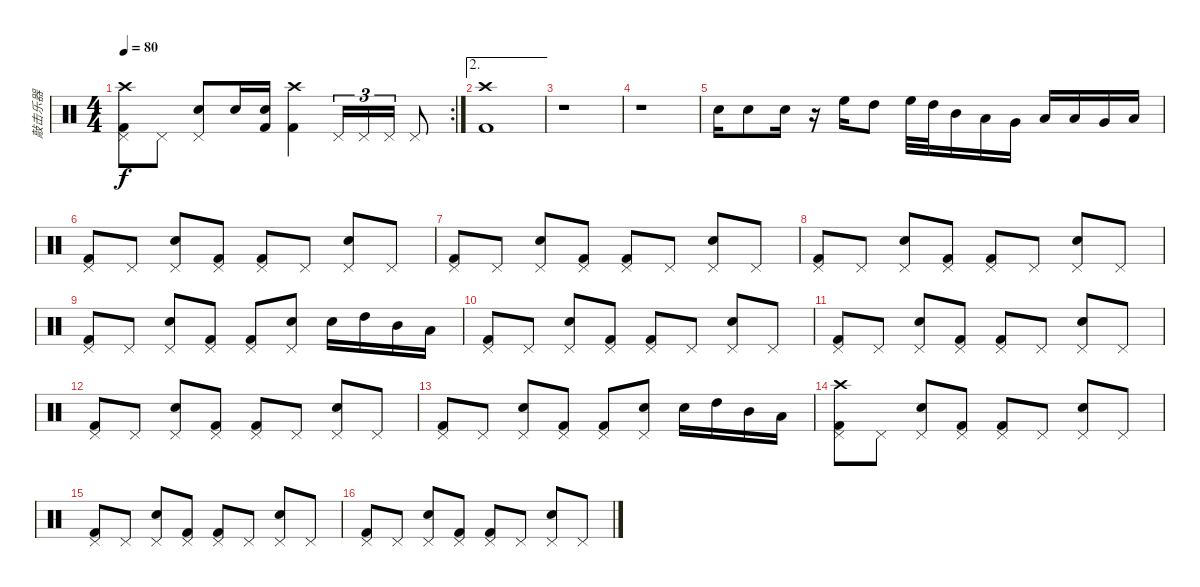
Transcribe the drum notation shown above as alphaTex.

\track ("敲击乐器" "敲击乐器") {instrument percussion}
\staff {score}
\articulation defaults
\rc 2
\ts (4 4)
\tempo 80
\clef neutral
\ks c
("Crash high (hit)" "Pedal Hi-Hat (hit)" "Kick (hit) 2").8{dy f} "Pedal Hi-Hat (hit)".8 ("Pedal Hi-Hat (hit)" "Metronome (bell)").8 "Metronome (bell)".16 ("Metronome (bell)" "Kick (hit) 2").16 ("Crash high (hit)" "Kick (hit) 2").4 "Pedal Hi-Hat (hit)".16{tu (3 2)} "Pedal Hi-Hat (hit)".16{tu (3 2)} "Pedal Hi-Hat (hit)".16{tu (3 2)} "Pedal Hi-Hat (hit)".8 |
\ae 2
("Crash high (hit)" "Kick (hit) 2").1 |
r.1 |
r.1 |
"Metronome (bell)".16 "Metronome (bell)".8 "Metronome (bell)".16 r.16 "High Floor Tom (hit)".16 "High Tom (hit)".8 "High Floor Tom (hit)".32 "High Tom (hit)".32 "Mid Tom (hit)".16 "Low Tom (hit)".16 "Very Low Tom (hit)".16 "Low Tom (hit)".16 "Low Tom (hit)".16 "Very Low Tom (hit)".16 "Low Floor Tom (hit)".16 |
("Pedal Hi-Hat (hit)" "Kick (hit) 2").8 "Pedal Hi-Hat (hit)".8 ("Pedal Hi-Hat (hit)" "Metronome (bell)").8 ("Pedal Hi-Hat (hit)" "Kick (hit) 2").8 ("Pedal Hi-Hat (hit)" "Kick (hit) 2").8 "Pedal Hi-Hat (hit)".8 ("Pedal Hi-Hat (hit)" "Metronome (bell)").8 "Pedal Hi-Hat (hit)".8 |
("Pedal Hi-Hat (hit)" "Kick (hit) 2").8 "Pedal Hi-Hat (hit)".8 ("Pedal Hi-Hat (hit)" "Metronome (bell)").8 ("Pedal Hi-Hat (hit)" "Kick (hit) 2").8 ("Pedal Hi-Hat (hit)" "Kick (hit) 2").8 "Pedal Hi-Hat (hit)".8 ("Pedal Hi-Hat (hit)" "Metronome (bell)").8 "Pedal Hi-Hat (hit)".8 |
("Pedal Hi-Hat (hit)" "Kick (hit) 2").8 "Pedal Hi-Hat (hit)".8 ("Pedal Hi-Hat (hit)" "Metronome (bell)").8 ("Pedal Hi-Hat (hit)" "Kick (hit) 2").8 ("Pedal Hi-Hat (hit)" "Kick (hit) 2").8 "Pedal Hi-Hat (hit)".8 ("Pedal Hi-Hat (hit)" "Metronome (bell)").8 "Pedal Hi-Hat (hit)".8 |
("Pedal Hi-Hat (hit)" "Kick (hit) 2").8 "Pedal Hi-Hat (hit)".8 ("Pedal Hi-Hat (hit)" "Metronome (bell)").8 ("Pedal Hi-Hat (hit)" "Kick (hit) 2").8 ("Pedal Hi-Hat (hit)" "Kick (hit) 2").8 ("Pedal Hi-Hat (hit)" "Metronome (bell)").8 "Metronome (bell)".16 "High Tom (hit)".16 "Mid Tom (hit)".16 "Low Tom (hit)".16 |
("Pedal Hi-Hat (hit)" "Kick (hit) 2").8 "Pedal Hi-Hat (hit)".8 ("Pedal Hi-Hat (hit)" "Metronome (bell)").8 ("Pedal Hi-Hat (hit)" "Kick (hit) 2").8 ("Pedal Hi-Hat (hit)" "Kick (hit) 2").8 "Pedal Hi-Hat (hit)".8 ("Pedal Hi-Hat (hit)" "Metronome (bell)").8 "Pedal Hi-Hat (hit)".8 |
("Pedal Hi-Hat (hit)" "Kick (hit) 2").8 "Pedal Hi-Hat (hit)".8 ("Pedal Hi-Hat (hit)" "Metronome (bell)").8 ("Pedal Hi-Hat (hit)" "Kick (hit) 2").8 ("Pedal Hi-Hat (hit)" "Kick (hit) 2").8 "Pedal Hi-Hat (hit)".8 ("Pedal Hi-Hat (hit)" "Metronome (bell)").8 "Pedal Hi-Hat (hit)".8 |
("Pedal Hi-Hat (hit)" "Kick (hit) 2").8 "Pedal Hi-Hat (hit)".8 ("Pedal Hi-Hat (hit)" "Metronome (bell)").8 ("Pedal Hi-Hat (hit)" "Kick (hit) 2").8 ("Pedal Hi-Hat (hit)" "Kick (hit) 2").8 "Pedal Hi-Hat (hit)".8 ("Pedal Hi-Hat (hit)" "Metronome (bell)").8 "Pedal Hi-Hat (hit)".8 |
("Pedal Hi-Hat (hit)" "Kick (hit) 2").8 "Pedal Hi-Hat (hit)".8 ("Pedal Hi-Hat (hit)" "Metronome (bell)").8 ("Pedal Hi-Hat (hit)" "Kick (hit) 2").8 ("Pedal Hi-Hat (hit)" "Kick (hit) 2").8 ("Pedal Hi-Hat (hit)" "Metronome (bell)").8 "Metronome (bell)".16 "High Tom (hit)".16 "Mid Tom (hit)".16 "Low Tom (hit)".16 |
("Crash high (hit)" "Pedal Hi-Hat (hit)" "Kick (hit) 2").8 "Pedal Hi-Hat (hit)".8 ("Pedal Hi-Hat (hit)" "Metronome (bell)").8 ("Pedal Hi-Hat (hit)" "Kick (hit) 2").8 ("Pedal Hi-Hat (hit)" "Kick (hit) 2").8 "Pedal Hi-Hat (hit)".8 ("Pedal Hi-Hat (hit)" "Metronome (bell)").8 "Pedal Hi-Hat (hit)".8 |
("Pedal Hi-Hat (hit)" "Kick (hit) 2").8 "Pedal Hi-Hat (hit)".8 ("Pedal Hi-Hat (hit)" "Metronome (bell)").8 ("Pedal Hi-Hat (hit)" "Kick (hit) 2").8 ("Pedal Hi-Hat (hit)" "Kick (hit) 2").8 "Pedal Hi-Hat (hit)".8 ("Pedal Hi-Hat (hit)" "Metronome (bell)").8 "Pedal Hi-Hat (hit)".8 |
("Pedal Hi-Hat (hit)" "Kick (hit) 2").8 "Pedal Hi-Hat (hit)".8 ("Pedal Hi-Hat (hit)" "Metronome (bell)").8 ("Pedal Hi-Hat (hit)" "Kick (hit) 2").8 ("Pedal Hi-Hat (hit)" "Kick (hit) 2").8 "Pedal Hi-Hat (hit)".8 ("Pedal Hi-Hat (hit)" "Metronome (bell)").8 "Pedal Hi-Hat (hit)".8
